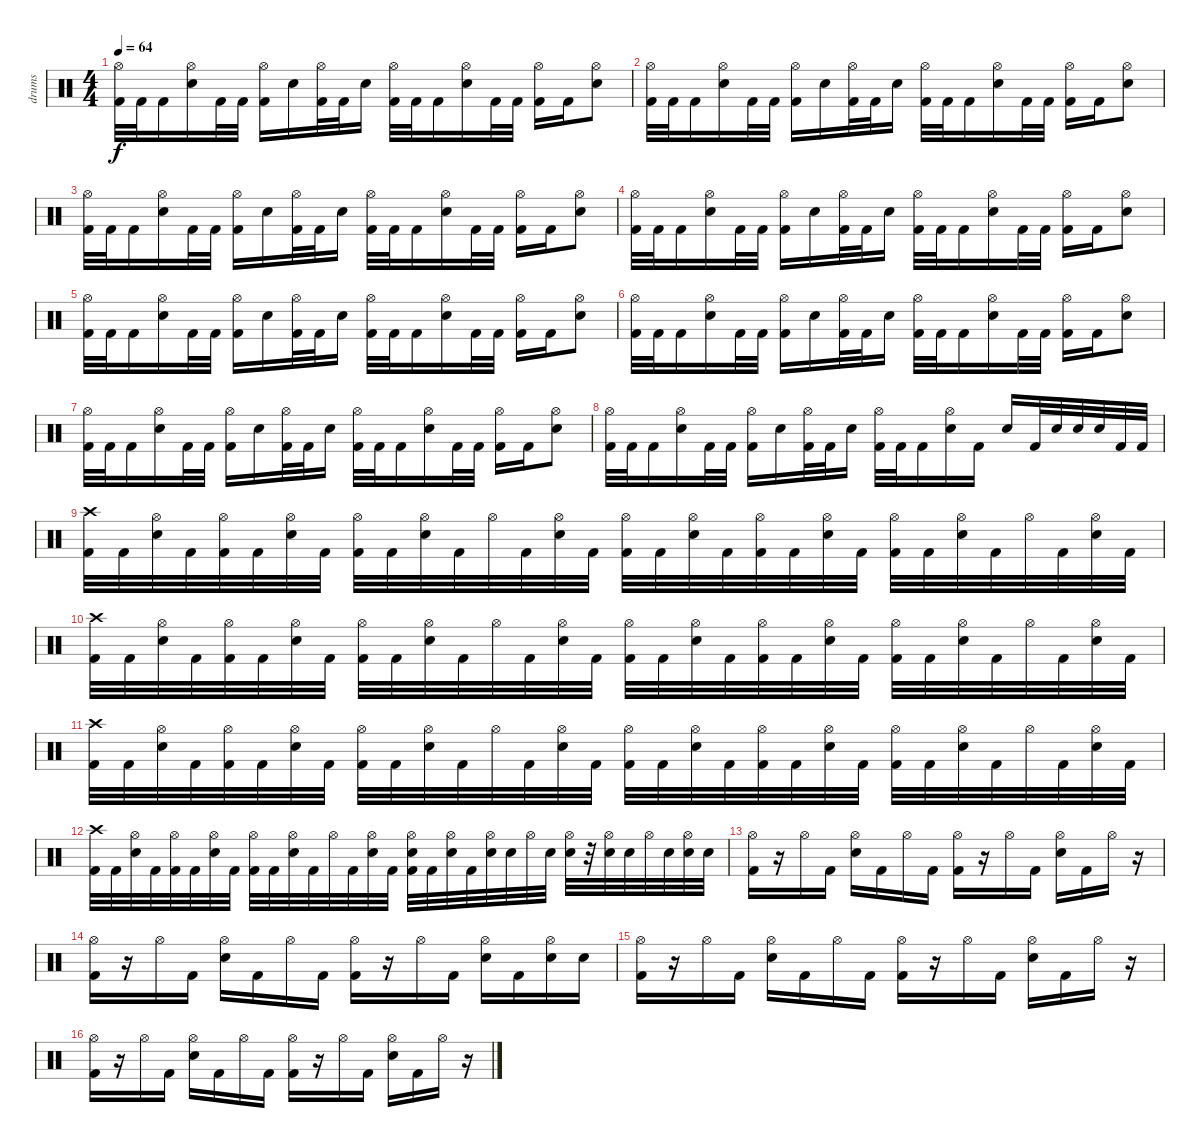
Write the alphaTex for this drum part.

\track ("drums" "drums") {instrument percussion}
\staff {score}
\articulation defaults
\ts (4 4)
\tempo 64
\clef neutral
\ks c
("Hi-Hat (open)" "Kick (hit) 2").32{dy f} "Kick (hit) 2".32 "Kick (hit) 2".16 ("Snare (hit) 2" "Hi-Hat (open)").16 "Kick (hit) 2".32 "Kick (hit) 2".32 ("Hi-Hat (open)" "Kick (hit) 2").16 "Snare (hit) 2".16 ("Hi-Hat (open)" "Kick (hit) 2").32 "Kick (hit) 2".32 "Snare (hit) 2".16 ("Hi-Hat (open)" "Kick (hit) 2").32 "Kick (hit) 2".32 "Kick (hit) 2".16 ("Snare (hit) 2" "Hi-Hat (open)").16 "Kick (hit) 2".32 "Kick (hit) 2".32 ("Hi-Hat (open)" "Kick (hit) 2").16 "Kick (hit) 2".16 ("Snare (hit) 2" "Hi-Hat (open)").8 |
("Hi-Hat (open)" "Kick (hit) 2").32 "Kick (hit) 2".32 "Kick (hit) 2".16 ("Snare (hit) 2" "Hi-Hat (open)").16 "Kick (hit) 2".32 "Kick (hit) 2".32 ("Hi-Hat (open)" "Kick (hit) 2").16 "Snare (hit) 2".16 ("Hi-Hat (open)" "Kick (hit) 2").32 "Kick (hit) 2".32 "Snare (hit) 2".16 ("Hi-Hat (open)" "Kick (hit) 2").32 "Kick (hit) 2".32 "Kick (hit) 2".16 ("Snare (hit) 2" "Hi-Hat (open)").16 "Kick (hit) 2".32 "Kick (hit) 2".32 ("Hi-Hat (open)" "Kick (hit) 2").16 "Kick (hit) 2".16 ("Snare (hit) 2" "Hi-Hat (open)").8 |
("Hi-Hat (open)" "Kick (hit) 2").32 "Kick (hit) 2".32 "Kick (hit) 2".16 ("Snare (hit) 2" "Hi-Hat (open)").16 "Kick (hit) 2".32 "Kick (hit) 2".32 ("Hi-Hat (open)" "Kick (hit) 2").16 "Snare (hit) 2".16 ("Hi-Hat (open)" "Kick (hit) 2").32 "Kick (hit) 2".32 "Snare (hit) 2".16 ("Hi-Hat (open)" "Kick (hit) 2").32 "Kick (hit) 2".32 "Kick (hit) 2".16 ("Snare (hit) 2" "Hi-Hat (open)").16 "Kick (hit) 2".32 "Kick (hit) 2".32 ("Hi-Hat (open)" "Kick (hit) 2").16 "Kick (hit) 2".16 ("Snare (hit) 2" "Hi-Hat (open)").8 |
("Hi-Hat (open)" "Kick (hit) 2").32 "Kick (hit) 2".32 "Kick (hit) 2".16 ("Snare (hit) 2" "Hi-Hat (open)").16 "Kick (hit) 2".32 "Kick (hit) 2".32 ("Hi-Hat (open)" "Kick (hit) 2").16 "Snare (hit) 2".16 ("Hi-Hat (open)" "Kick (hit) 2").32 "Kick (hit) 2".32 "Snare (hit) 2".16 ("Hi-Hat (open)" "Kick (hit) 2").32 "Kick (hit) 2".32 "Kick (hit) 2".16 ("Snare (hit) 2" "Hi-Hat (open)").16 "Kick (hit) 2".32 "Kick (hit) 2".32 ("Hi-Hat (open)" "Kick (hit) 2").16 "Kick (hit) 2".16 ("Snare (hit) 2" "Hi-Hat (open)").8 |
("Hi-Hat (open)" "Kick (hit) 2").32 "Kick (hit) 2".32 "Kick (hit) 2".16 ("Snare (hit) 2" "Hi-Hat (open)").16 "Kick (hit) 2".32 "Kick (hit) 2".32 ("Hi-Hat (open)" "Kick (hit) 2").16 "Snare (hit) 2".16 ("Hi-Hat (open)" "Kick (hit) 2").32 "Kick (hit) 2".32 "Snare (hit) 2".16 ("Hi-Hat (open)" "Kick (hit) 2").32 "Kick (hit) 2".32 "Kick (hit) 2".16 ("Snare (hit) 2" "Hi-Hat (open)").16 "Kick (hit) 2".32 "Kick (hit) 2".32 ("Hi-Hat (open)" "Kick (hit) 2").16 "Kick (hit) 2".16 ("Snare (hit) 2" "Hi-Hat (open)").8 |
("Hi-Hat (open)" "Kick (hit) 2").32 "Kick (hit) 2".32 "Kick (hit) 2".16 ("Snare (hit) 2" "Hi-Hat (open)").16 "Kick (hit) 2".32 "Kick (hit) 2".32 ("Hi-Hat (open)" "Kick (hit) 2").16 "Snare (hit) 2".16 ("Hi-Hat (open)" "Kick (hit) 2").32 "Kick (hit) 2".32 "Snare (hit) 2".16 ("Hi-Hat (open)" "Kick (hit) 2").32 "Kick (hit) 2".32 "Kick (hit) 2".16 ("Snare (hit) 2" "Hi-Hat (open)").16 "Kick (hit) 2".32 "Kick (hit) 2".32 ("Hi-Hat (open)" "Kick (hit) 2").16 "Kick (hit) 2".16 ("Snare (hit) 2" "Hi-Hat (open)").8 |
("Hi-Hat (open)" "Kick (hit) 2").32 "Kick (hit) 2".32 "Kick (hit) 2".16 ("Snare (hit) 2" "Hi-Hat (open)").16 "Kick (hit) 2".32 "Kick (hit) 2".32 ("Hi-Hat (open)" "Kick (hit) 2").16 "Snare (hit) 2".16 ("Hi-Hat (open)" "Kick (hit) 2").32 "Kick (hit) 2".32 "Snare (hit) 2".16 ("Hi-Hat (open)" "Kick (hit) 2").32 "Kick (hit) 2".32 "Kick (hit) 2".16 ("Snare (hit) 2" "Hi-Hat (open)").16 "Kick (hit) 2".32 "Kick (hit) 2".32 ("Hi-Hat (open)" "Kick (hit) 2").16 "Kick (hit) 2".16 ("Snare (hit) 2" "Hi-Hat (open)").8 |
("Hi-Hat (open)" "Kick (hit) 2").32 "Kick (hit) 2".32 "Kick (hit) 2".16 ("Snare (hit) 2" "Hi-Hat (open)").16 "Kick (hit) 2".32 "Kick (hit) 2".32 ("Hi-Hat (open)" "Kick (hit) 2").16 "Snare (hit) 2".16 ("Hi-Hat (open)" "Kick (hit) 2").32 "Kick (hit) 2".32 "Snare (hit) 2".16 ("Hi-Hat (open)" "Kick (hit) 2").32 "Kick (hit) 2".32 "Kick (hit) 2".16 ("Snare (hit) 2" "Hi-Hat (open)").16 "Kick (hit) 2".16 "Snare (hit) 2".16 "Kick (hit) 2".32 "Snare (hit) 2".32 "Snare (hit) 2".32 "Snare (hit) 2".32 "Kick (hit) 2".32 "Kick (hit) 2".32 |
("Crash high (hit)" "Kick (hit) 2").32 "Kick (hit) 2".32 ("Snare (hit) 2" "Hi-Hat (open)").32 "Kick (hit) 2".32 ("Hi-Hat (open)" "Kick (hit) 2").32 "Kick (hit) 2".32 ("Snare (hit) 2" "Hi-Hat (open)").32 "Kick (hit) 2".32 ("Hi-Hat (open)" "Kick (hit) 2").32 "Kick (hit) 2".32 ("Snare (hit) 2" "Hi-Hat (open)").32 "Kick (hit) 2".32 "Hi-Hat (open)".32 "Kick (hit) 2".32 ("Snare (hit) 2" "Hi-Hat (open)").32 "Kick (hit) 2".32 ("Hi-Hat (open)" "Kick (hit) 2").32 "Kick (hit) 2".32 ("Snare (hit) 2" "Hi-Hat (open)").32 "Kick (hit) 2".32 ("Hi-Hat (open)" "Kick (hit) 2").32 "Kick (hit) 2".32 ("Snare (hit) 2" "Hi-Hat (open)").32 "Kick (hit) 2".32 ("Hi-Hat (open)" "Kick (hit) 2").32 "Kick (hit) 2".32 ("Snare (hit) 2" "Hi-Hat (open)").32 "Kick (hit) 2".32 "Hi-Hat (open)".32 "Kick (hit) 2".32 ("Snare (hit) 2" "Hi-Hat (open)").32 "Kick (hit) 2".32 |
("Crash high (hit)" "Kick (hit) 2").32 "Kick (hit) 2".32 ("Snare (hit) 2" "Hi-Hat (open)").32 "Kick (hit) 2".32 ("Hi-Hat (open)" "Kick (hit) 2").32 "Kick (hit) 2".32 ("Snare (hit) 2" "Hi-Hat (open)").32 "Kick (hit) 2".32 ("Hi-Hat (open)" "Kick (hit) 2").32 "Kick (hit) 2".32 ("Snare (hit) 2" "Hi-Hat (open)").32 "Kick (hit) 2".32 "Hi-Hat (open)".32 "Kick (hit) 2".32 ("Snare (hit) 2" "Hi-Hat (open)").32 "Kick (hit) 2".32 ("Hi-Hat (open)" "Kick (hit) 2").32 "Kick (hit) 2".32 ("Snare (hit) 2" "Hi-Hat (open)").32 "Kick (hit) 2".32 ("Hi-Hat (open)" "Kick (hit) 2").32 "Kick (hit) 2".32 ("Snare (hit) 2" "Hi-Hat (open)").32 "Kick (hit) 2".32 ("Hi-Hat (open)" "Kick (hit) 2").32 "Kick (hit) 2".32 ("Snare (hit) 2" "Hi-Hat (open)").32 "Kick (hit) 2".32 "Hi-Hat (open)".32 "Kick (hit) 2".32 ("Snare (hit) 2" "Hi-Hat (open)").32 "Kick (hit) 2".32 |
("Crash high (hit)" "Kick (hit) 2").32 "Kick (hit) 2".32 ("Snare (hit) 2" "Hi-Hat (open)").32 "Kick (hit) 2".32 ("Hi-Hat (open)" "Kick (hit) 2").32 "Kick (hit) 2".32 ("Snare (hit) 2" "Hi-Hat (open)").32 "Kick (hit) 2".32 ("Hi-Hat (open)" "Kick (hit) 2").32 "Kick (hit) 2".32 ("Snare (hit) 2" "Hi-Hat (open)").32 "Kick (hit) 2".32 "Hi-Hat (open)".32 "Kick (hit) 2".32 ("Snare (hit) 2" "Hi-Hat (open)").32 "Kick (hit) 2".32 ("Hi-Hat (open)" "Kick (hit) 2").32 "Kick (hit) 2".32 ("Snare (hit) 2" "Hi-Hat (open)").32 "Kick (hit) 2".32 ("Hi-Hat (open)" "Kick (hit) 2").32 "Kick (hit) 2".32 ("Snare (hit) 2" "Hi-Hat (open)").32 "Kick (hit) 2".32 ("Hi-Hat (open)" "Kick (hit) 2").32 "Kick (hit) 2".32 ("Snare (hit) 2" "Hi-Hat (open)").32 "Kick (hit) 2".32 "Hi-Hat (open)".32 "Kick (hit) 2".32 ("Snare (hit) 2" "Hi-Hat (open)").32 "Kick (hit) 2".32 |
("Crash high (hit)" "Kick (hit) 2").32 "Kick (hit) 2".32 ("Snare (hit) 2" "Hi-Hat (open)").32 "Kick (hit) 2".32 ("Hi-Hat (open)" "Kick (hit) 2").32 "Kick (hit) 2".32 ("Snare (hit) 2" "Hi-Hat (open)").32 "Kick (hit) 2".32 ("Hi-Hat (open)" "Kick (hit) 2").32 "Kick (hit) 2".32 ("Snare (hit) 2" "Hi-Hat (open)").32 "Kick (hit) 2".32 "Hi-Hat (open)".32 "Kick (hit) 2".32 ("Snare (hit) 2" "Hi-Hat (open)").32 "Kick (hit) 2".32 ("Snare (hit) 2" "Hi-Hat (open)" "Kick (hit) 2").32 "Kick (hit) 2".32 ("Snare (hit) 2" "Hi-Hat (open)").32 "Kick (hit) 2".32 ("Snare (hit) 2" "Hi-Hat (open)").32 "Snare (hit) 2".32 "Hi-Hat (open)".32 "Snare (hit) 2".32 ("Snare (hit) 2" "Hi-Hat (open)").32 r.32 ("Snare (hit) 2" "Hi-Hat (open)").32 "Snare (hit) 2".32 "Hi-Hat (open)".32 "Snare (hit) 2".32 ("Snare (hit) 2" "Hi-Hat (open)").32 "Snare (hit) 2".32 |
("Hi-Hat (open)" "Kick (hit) 2").16 r.16 "Hi-Hat (open)".16 "Kick (hit) 2".16 ("Snare (hit) 2" "Hi-Hat (open)").16 "Kick (hit) 2".16 "Hi-Hat (open)".16 "Kick (hit) 2".16 ("Hi-Hat (open)" "Kick (hit) 2").16 r.16 "Hi-Hat (open)".16 "Kick (hit) 2".16 ("Snare (hit) 2" "Hi-Hat (open)").16 "Kick (hit) 2".16 "Hi-Hat (open)".16 r.16 |
("Hi-Hat (open)" "Kick (hit) 2").16 r.16 "Hi-Hat (open)".16 "Kick (hit) 2".16 ("Snare (hit) 2" "Hi-Hat (open)").16 "Kick (hit) 2".16 "Hi-Hat (open)".16 "Kick (hit) 2".16 ("Hi-Hat (open)" "Kick (hit) 2").16 r.16 "Hi-Hat (open)".16 "Kick (hit) 2".16 ("Snare (hit) 2" "Hi-Hat (open)").16 "Kick (hit) 2".16 ("Snare (hit) 2" "Hi-Hat (open)").16 "Snare (hit) 2".16 |
("Hi-Hat (open)" "Kick (hit) 2").16 r.16 "Hi-Hat (open)".16 "Kick (hit) 2".16 ("Snare (hit) 2" "Hi-Hat (open)").16 "Kick (hit) 2".16 "Hi-Hat (open)".16 "Kick (hit) 2".16 ("Hi-Hat (open)" "Kick (hit) 2").16 r.16 "Hi-Hat (open)".16 "Kick (hit) 2".16 ("Snare (hit) 2" "Hi-Hat (open)").16 "Kick (hit) 2".16 "Hi-Hat (open)".16 r.16 |
("Hi-Hat (open)" "Kick (hit) 2").16 r.16 "Hi-Hat (open)".16 "Kick (hit) 2".16 ("Snare (hit) 2" "Hi-Hat (open)").16 "Kick (hit) 2".16 "Hi-Hat (open)".16 "Kick (hit) 2".16 ("Hi-Hat (open)" "Kick (hit) 2").16 r.16 "Hi-Hat (open)".16 "Kick (hit) 2".16 ("Snare (hit) 2" "Hi-Hat (open)").16 "Kick (hit) 2".16 "Hi-Hat (open)".16 r.16
